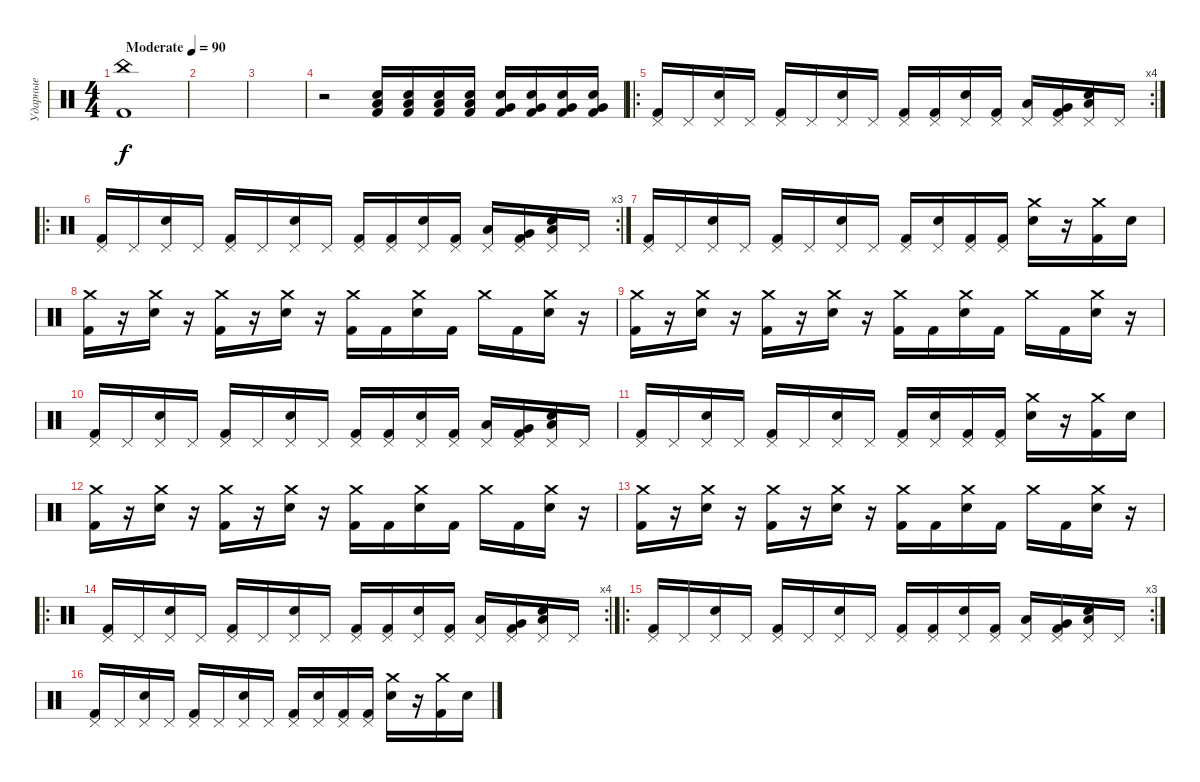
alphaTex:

\track ("Ударные" "Ударные") {instrument percussion}
\staff {score}
\articulation defaults
\ts (4 4)
\tempo (90 "Moderate")
\clef neutral
\ks c
("Kick (hit) 2" "China (hit)").1{dy f} |
|
|
r.2 ("Low Floor Tom (hit)" "Snare (hit) 2" "Kick (hit) 2").16 ("Low Floor Tom (hit)" "Snare (hit) 2" "Kick (hit) 2").16 ("Low Floor Tom (hit)" "Snare (hit) 2" "Kick (hit) 2").16 ("Low Floor Tom (hit)" "Snare (hit) 2" "Kick (hit) 2").16 ("Very Low Tom (hit)" "Snare (hit) 2" "Kick (hit) 2").16 ("Very Low Tom (hit)" "Snare (hit) 2" "Kick (hit) 2").16 ("Very Low Tom (hit)" "Snare (hit) 2" "Kick (hit) 2").16 ("Very Low Tom (hit)" "Snare (hit) 2" "Kick (hit) 2").16 |
\ro
\rc 4
("Pedal Hi-Hat (hit)" "Kick (hit) 2").16 "Pedal Hi-Hat (hit)".16 ("Pedal Hi-Hat (hit)" "Electric Snare (hit)").16 "Pedal Hi-Hat (hit)".16 ("Pedal Hi-Hat (hit)" "Kick (hit) 2").16 "Pedal Hi-Hat (hit)".16 ("Pedal Hi-Hat (hit)" "Electric Snare (hit)").16 "Pedal Hi-Hat (hit)".16 ("Pedal Hi-Hat (hit)" "Kick (hit) 2").16 ("Pedal Hi-Hat (hit)" "Kick (hit) 2").16 ("Pedal Hi-Hat (hit)" "Electric Snare (hit)").16 ("Pedal Hi-Hat (hit)" "Kick (hit) 2").16 ("Pedal Hi-Hat (hit)" "Low Floor Tom (hit)").16 ("Pedal Hi-Hat (hit)" "Very Low Tom (hit)" "Kick (hit) 2").16 ("Pedal Hi-Hat (hit)" "Low Tom (hit)" "Electric Snare (hit)").16 "Pedal Hi-Hat (hit)".16 |
\ro
\rc 3
("Pedal Hi-Hat (hit)" "Kick (hit) 2").16 "Pedal Hi-Hat (hit)".16 ("Pedal Hi-Hat (hit)" "Electric Snare (hit)").16 "Pedal Hi-Hat (hit)".16 ("Pedal Hi-Hat (hit)" "Kick (hit) 2").16 "Pedal Hi-Hat (hit)".16 ("Pedal Hi-Hat (hit)" "Electric Snare (hit)").16 "Pedal Hi-Hat (hit)".16 ("Pedal Hi-Hat (hit)" "Kick (hit) 2").16 ("Pedal Hi-Hat (hit)" "Kick (hit) 2").16 ("Pedal Hi-Hat (hit)" "Electric Snare (hit)").16 ("Pedal Hi-Hat (hit)" "Kick (hit) 2").16 ("Pedal Hi-Hat (hit)" "Low Floor Tom (hit)").16 ("Pedal Hi-Hat (hit)" "Very Low Tom (hit)" "Kick (hit) 2").16 ("Pedal Hi-Hat (hit)" "Low Tom (hit)" "Electric Snare (hit)").16 "Pedal Hi-Hat (hit)".16 |
("Pedal Hi-Hat (hit)" "Kick (hit) 2").16 "Pedal Hi-Hat (hit)".16 ("Pedal Hi-Hat (hit)" "Electric Snare (hit)").16 "Pedal Hi-Hat (hit)".16 ("Pedal Hi-Hat (hit)" "Kick (hit) 2").16 "Pedal Hi-Hat (hit)".16 ("Pedal Hi-Hat (hit)" "Electric Snare (hit)").16 "Pedal Hi-Hat (hit)".16 ("Pedal Hi-Hat (hit)" "Kick (hit) 2").16 ("Pedal Hi-Hat (hit)" "Electric Snare (hit)").16 ("Pedal Hi-Hat (hit)" "Kick (hit) 2").16 ("Pedal Hi-Hat (hit)" "Kick (hit) 2").16 ("Crash medium (hit)" "Electric Snare (hit)").16 r.16 ("Crash medium (hit)" "Kick (hit) 2").16 "Electric Snare (hit)".16 |
("Crash medium (hit)" "Kick (hit) 2").16 r.16 ("Crash medium (hit)" "Electric Snare (hit)").16 r.16 ("Crash medium (hit)" "Kick (hit) 2").16 r.16 ("Crash medium (hit)" "Electric Snare (hit)").16 r.16 ("Crash medium (hit)" "Kick (hit) 2").16 "Kick (hit) 2".16 ("Crash medium (hit)" "Electric Snare (hit)").16 "Kick (hit) 2".16 "Crash medium (hit)".16 "Kick (hit) 2".16 ("Crash medium (hit)" "Electric Snare (hit)").16 r.16 |
("Crash medium (hit)" "Kick (hit) 2").16 r.16 ("Crash medium (hit)" "Electric Snare (hit)").16 r.16 ("Crash medium (hit)" "Kick (hit) 2").16 r.16 ("Crash medium (hit)" "Electric Snare (hit)").16 r.16 ("Crash medium (hit)" "Kick (hit) 2").16 "Kick (hit) 2".16 ("Crash medium (hit)" "Electric Snare (hit)").16 "Kick (hit) 2".16 "Crash medium (hit)".16 "Kick (hit) 2".16 ("Crash medium (hit)" "Electric Snare (hit)").16 r.16 |
("Pedal Hi-Hat (hit)" "Kick (hit) 2").16 "Pedal Hi-Hat (hit)".16 ("Pedal Hi-Hat (hit)" "Electric Snare (hit)").16 "Pedal Hi-Hat (hit)".16 ("Pedal Hi-Hat (hit)" "Kick (hit) 2").16 "Pedal Hi-Hat (hit)".16 ("Pedal Hi-Hat (hit)" "Electric Snare (hit)").16 "Pedal Hi-Hat (hit)".16 ("Pedal Hi-Hat (hit)" "Kick (hit) 2").16 ("Pedal Hi-Hat (hit)" "Kick (hit) 2").16 ("Pedal Hi-Hat (hit)" "Electric Snare (hit)").16 ("Pedal Hi-Hat (hit)" "Kick (hit) 2").16 ("Pedal Hi-Hat (hit)" "Low Floor Tom (hit)").16 ("Pedal Hi-Hat (hit)" "Very Low Tom (hit)" "Kick (hit) 2").16 ("Pedal Hi-Hat (hit)" "Low Tom (hit)" "Electric Snare (hit)").16 "Pedal Hi-Hat (hit)".16 |
("Pedal Hi-Hat (hit)" "Kick (hit) 2").16 "Pedal Hi-Hat (hit)".16 ("Pedal Hi-Hat (hit)" "Electric Snare (hit)").16 "Pedal Hi-Hat (hit)".16 ("Pedal Hi-Hat (hit)" "Kick (hit) 2").16 "Pedal Hi-Hat (hit)".16 ("Pedal Hi-Hat (hit)" "Electric Snare (hit)").16 "Pedal Hi-Hat (hit)".16 ("Pedal Hi-Hat (hit)" "Kick (hit) 2").16 ("Pedal Hi-Hat (hit)" "Electric Snare (hit)").16 ("Pedal Hi-Hat (hit)" "Kick (hit) 2").16 ("Pedal Hi-Hat (hit)" "Kick (hit) 2").16 ("Crash medium (hit)" "Electric Snare (hit)").16 r.16 ("Crash medium (hit)" "Kick (hit) 2").16 "Electric Snare (hit)".16 |
("Crash medium (hit)" "Kick (hit) 2").16 r.16 ("Crash medium (hit)" "Electric Snare (hit)").16 r.16 ("Crash medium (hit)" "Kick (hit) 2").16 r.16 ("Crash medium (hit)" "Electric Snare (hit)").16 r.16 ("Crash medium (hit)" "Kick (hit) 2").16 "Kick (hit) 2".16 ("Crash medium (hit)" "Electric Snare (hit)").16 "Kick (hit) 2".16 "Crash medium (hit)".16 "Kick (hit) 2".16 ("Crash medium (hit)" "Electric Snare (hit)").16 r.16 |
("Crash medium (hit)" "Kick (hit) 2").16 r.16 ("Crash medium (hit)" "Electric Snare (hit)").16 r.16 ("Crash medium (hit)" "Kick (hit) 2").16 r.16 ("Crash medium (hit)" "Electric Snare (hit)").16 r.16 ("Crash medium (hit)" "Kick (hit) 2").16 "Kick (hit) 2".16 ("Crash medium (hit)" "Electric Snare (hit)").16 "Kick (hit) 2".16 "Crash medium (hit)".16 "Kick (hit) 2".16 ("Crash medium (hit)" "Electric Snare (hit)").16 r.16 |
\ro
\rc 4
("Pedal Hi-Hat (hit)" "Kick (hit) 2").16 "Pedal Hi-Hat (hit)".16 ("Pedal Hi-Hat (hit)" "Electric Snare (hit)").16 "Pedal Hi-Hat (hit)".16 ("Pedal Hi-Hat (hit)" "Kick (hit) 2").16 "Pedal Hi-Hat (hit)".16 ("Pedal Hi-Hat (hit)" "Electric Snare (hit)").16 "Pedal Hi-Hat (hit)".16 ("Pedal Hi-Hat (hit)" "Kick (hit) 2").16 ("Pedal Hi-Hat (hit)" "Kick (hit) 2").16 ("Pedal Hi-Hat (hit)" "Electric Snare (hit)").16 ("Pedal Hi-Hat (hit)" "Kick (hit) 2").16 ("Pedal Hi-Hat (hit)" "Low Floor Tom (hit)").16 ("Pedal Hi-Hat (hit)" "Very Low Tom (hit)" "Kick (hit) 2").16 ("Pedal Hi-Hat (hit)" "Low Tom (hit)" "Electric Snare (hit)").16 "Pedal Hi-Hat (hit)".16 |
\ro
\rc 3
("Pedal Hi-Hat (hit)" "Kick (hit) 2").16 "Pedal Hi-Hat (hit)".16 ("Pedal Hi-Hat (hit)" "Electric Snare (hit)").16 "Pedal Hi-Hat (hit)".16 ("Pedal Hi-Hat (hit)" "Kick (hit) 2").16 "Pedal Hi-Hat (hit)".16 ("Pedal Hi-Hat (hit)" "Electric Snare (hit)").16 "Pedal Hi-Hat (hit)".16 ("Pedal Hi-Hat (hit)" "Kick (hit) 2").16 ("Pedal Hi-Hat (hit)" "Kick (hit) 2").16 ("Pedal Hi-Hat (hit)" "Electric Snare (hit)").16 ("Pedal Hi-Hat (hit)" "Kick (hit) 2").16 ("Pedal Hi-Hat (hit)" "Low Floor Tom (hit)").16 ("Pedal Hi-Hat (hit)" "Very Low Tom (hit)" "Kick (hit) 2").16 ("Pedal Hi-Hat (hit)" "Low Tom (hit)" "Electric Snare (hit)").16 "Pedal Hi-Hat (hit)".16 |
("Pedal Hi-Hat (hit)" "Kick (hit) 2").16 "Pedal Hi-Hat (hit)".16 ("Pedal Hi-Hat (hit)" "Electric Snare (hit)").16 "Pedal Hi-Hat (hit)".16 ("Pedal Hi-Hat (hit)" "Kick (hit) 2").16 "Pedal Hi-Hat (hit)".16 ("Pedal Hi-Hat (hit)" "Electric Snare (hit)").16 "Pedal Hi-Hat (hit)".16 ("Pedal Hi-Hat (hit)" "Kick (hit) 2").16 ("Pedal Hi-Hat (hit)" "Electric Snare (hit)").16 ("Pedal Hi-Hat (hit)" "Kick (hit) 2").16 ("Pedal Hi-Hat (hit)" "Kick (hit) 2").16 ("Crash medium (hit)" "Electric Snare (hit)").16 r.16 ("Crash medium (hit)" "Kick (hit) 2").16 "Electric Snare (hit)".16
